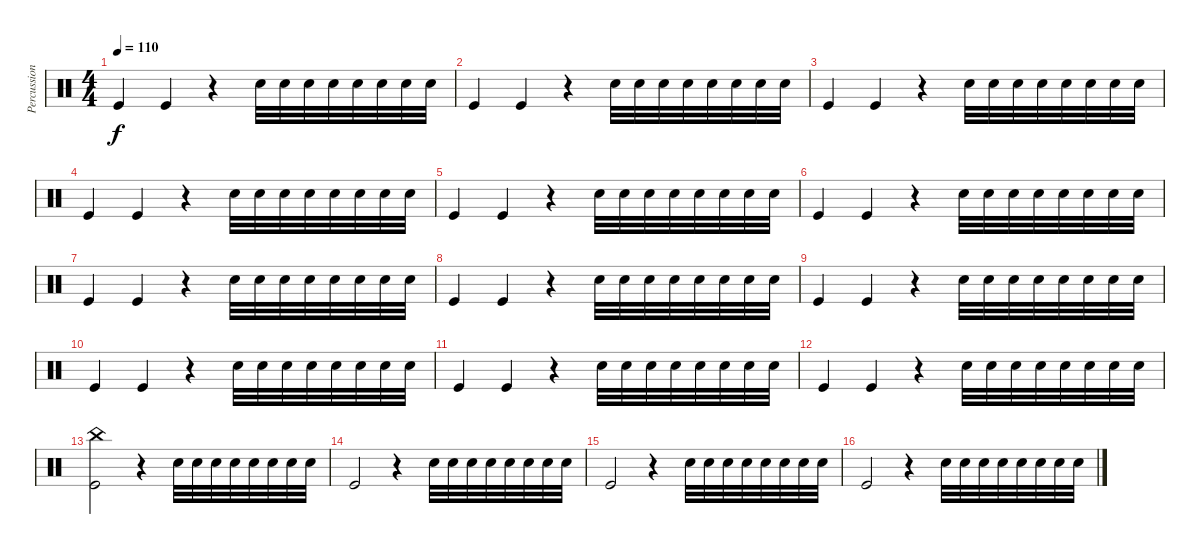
\track ("Percussions" "Percussion") {instrument percussion}
\staff {score}
\articulation defaults
\ts (4 4)
\tempo 110
\clef neutral
\ks c "Kick (hit)".4{dy f} "Kick (hit)".4
r.4 "Snare (hit) 2".32 "Snare (hit) 2".32 "Snare (hit) 2".32 "Snare (hit) 2".32 "Snare (hit) 2".32 "Snare (hit) 2".32 "Snare (hit) 2".32 "Snare (hit) 2".32 |
"Kick (hit)".4 "Kick (hit)".4 r.4 "Snare (hit) 2".32 "Snare (hit) 2".32 "Snare (hit) 2".32 "Snare (hit) 2".32 "Snare (hit) 2".32 "Snare (hit) 2".32 "Snare (hit) 2".32 "Snare (hit) 2".32 |
"Kick (hit)".4 "Kick (hit)".4 r.4 "Snare (hit) 2".32 "Snare (hit) 2".32 "Snare (hit) 2".32 "Snare (hit) 2".32 "Snare (hit) 2".32 "Snare (hit) 2".32 "Snare (hit) 2".32 "Snare (hit) 2".32 |
"Kick (hit)".4 "Kick (hit)".4 r.4 "Snare (hit) 2".32 "Snare (hit) 2".32 "Snare (hit) 2".32 "Snare (hit) 2".32 "Snare (hit) 2".32 "Snare (hit) 2".32 "Snare (hit) 2".32 "Snare (hit) 2".32 |
"Kick (hit)".4 "Kick (hit)".4 r.4 "Snare (hit) 2".32 "Snare (hit) 2".32 "Snare (hit) 2".32 "Snare (hit) 2".32 "Snare (hit) 2".32 "Snare (hit) 2".32 "Snare (hit) 2".32 "Snare (hit) 2".32 |
"Kick (hit)".4 "Kick (hit)".4 r.4 "Snare (hit) 2".32 "Snare (hit) 2".32 "Snare (hit) 2".32 "Snare (hit) 2".32 "Snare (hit) 2".32 "Snare (hit) 2".32 "Snare (hit) 2".32 "Snare (hit) 2".32 |
"Kick (hit)".4 "Kick (hit)".4 r.4 "Snare (hit) 2".32 "Snare (hit) 2".32 "Snare (hit) 2".32 "Snare (hit) 2".32 "Snare (hit) 2".32 "Snare (hit) 2".32 "Snare (hit) 2".32 "Snare (hit) 2".32 |
"Kick (hit)".4 "Kick (hit)".4 r.4 "Snare (hit) 2".32 "Snare (hit) 2".32 "Snare (hit) 2".32 "Snare (hit) 2".32 "Snare (hit) 2".32 "Snare (hit) 2".32 "Snare (hit) 2".32 "Snare (hit) 2".32 |
"Kick (hit)".4 "Kick (hit)".4 r.4 "Snare (hit) 2".32 "Snare (hit) 2".32 "Snare (hit) 2".32 "Snare (hit) 2".32 "Snare (hit) 2".32 "Snare (hit) 2".32 "Snare (hit) 2".32 "Snare (hit) 2".32 |
"Kick (hit)".4 "Kick (hit)".4 r.4 "Snare (hit) 2".32 "Snare (hit) 2".32 "Snare (hit) 2".32 "Snare (hit) 2".32 "Snare (hit) 2".32 "Snare (hit) 2".32 "Snare (hit) 2".32 "Snare (hit) 2".32 |
"Kick (hit)".4 "Kick (hit)".4 r.4 "Snare (hit) 2".32 "Snare (hit) 2".32 "Snare (hit) 2".32 "Snare (hit) 2".32 "Snare (hit) 2".32 "Snare (hit) 2".32 "Snare (hit) 2".32 "Snare (hit) 2".32 |
"Kick (hit)".4 "Kick (hit)".4 r.4 "Snare (hit) 2".32 "Snare (hit) 2".32 "Snare (hit) 2".32 "Snare (hit) 2".32 "Snare (hit) 2".32 "Snare (hit) 2".32 "Snare (hit) 2".32 "Snare (hit) 2".32 |
("China (hit)" "Kick (hit)").2 r.4 "Snare (hit) 2".32 "Snare (hit) 2".32 "Snare (hit) 2".32 "Snare (hit) 2".32 "Snare (hit) 2".32 "Snare (hit) 2".32 "Snare (hit) 2".32 "Snare (hit) 2".32 |
"Kick (hit)".2 r.4 "Snare (hit) 2".32 "Snare (hit) 2".32 "Snare (hit) 2".32 "Snare (hit) 2".32 "Snare (hit) 2".32 "Snare (hit) 2".32 "Snare (hit) 2".32 "Snare (hit) 2".32 |
"Kick (hit)".2 r.4 "Snare (hit) 2".32 "Snare (hit) 2".32 "Snare (hit) 2".32 "Snare (hit) 2".32 "Snare (hit) 2".32 "Snare (hit) 2".32 "Snare (hit) 2".32 "Snare (hit) 2".32 |
"Kick (hit)".2 r.4 "Snare (hit) 2".32 "Snare (hit) 2".32 "Snare (hit) 2".32 "Snare (hit) 2".32 "Snare (hit) 2".32 "Snare (hit) 2".32 "Snare (hit) 2".32 "Snare (hit) 2".32
